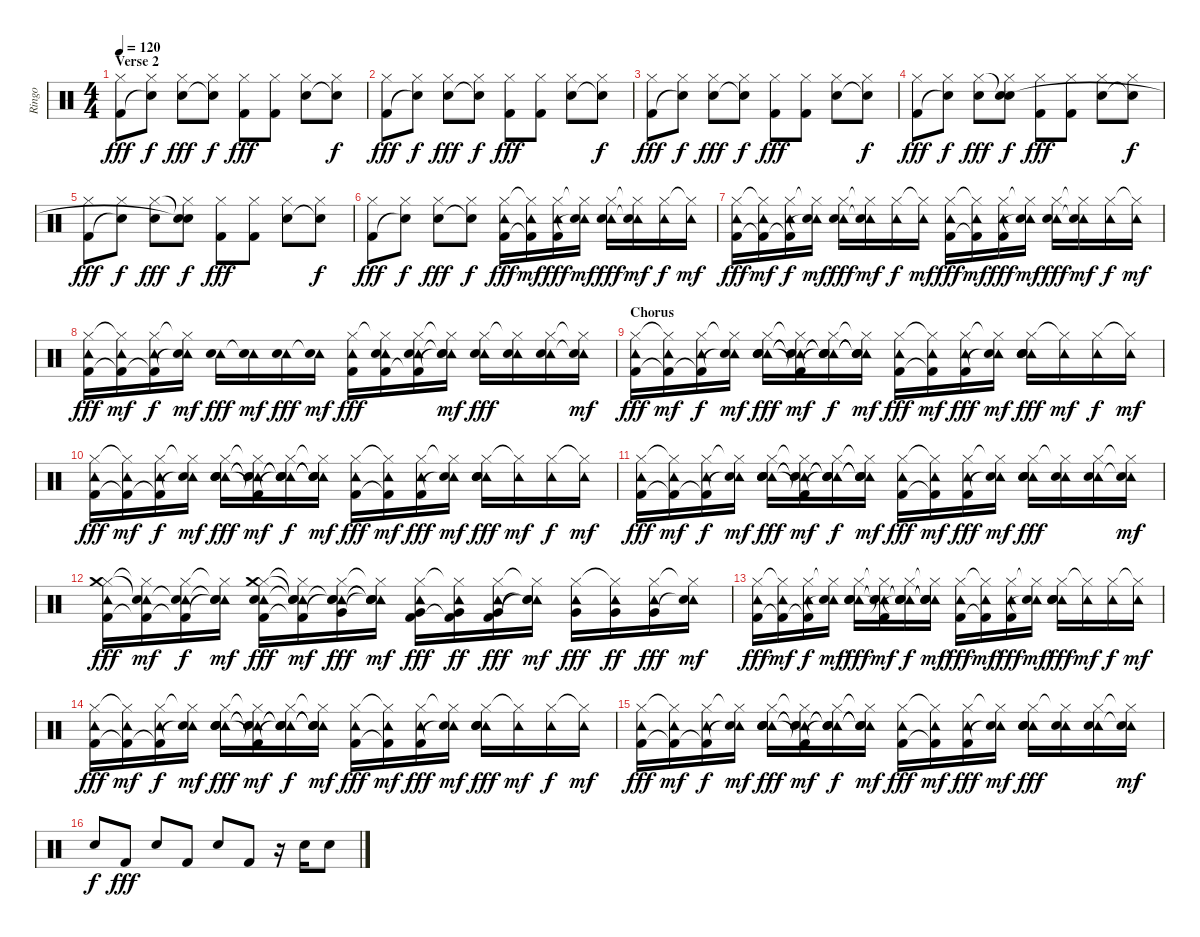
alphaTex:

\track ("Ringo" "Ringo") {instrument percussion}
\staff {score}
\articulation defaults
\ts (4 4)
\section ("" "Verse 2")
\tempo 120
\clef neutral
\ks c
("Hi-Hat (closed)" "Kick (hit) 2").8{dy fff} ("Hi-Hat (closed)" "Snare (hit)"{t}).8{dy f} ("Hi-Hat (closed)" "Electric Snare (hit)").8{dy fff} ("Hi-Hat (closed)" "Snare (hit)"{t}).8{dy f} ("Hi-Hat (closed)" "Kick (hit) 2").8{dy fff} ("Hi-Hat (closed)" "Kick (hit) 2").8 ("Hi-Hat (closed)" "Electric Snare (hit)").8 ("Hi-Hat (closed)" "Snare (hit)"{t}).8{dy f} |
("Hi-Hat (closed)" "Kick (hit) 2").8{dy fff} ("Hi-Hat (closed)" "Snare (hit)"{t}).8{dy f} ("Hi-Hat (closed)" "Electric Snare (hit)").8{dy fff} ("Hi-Hat (closed)" "Snare (hit)"{t}).8{dy f} ("Hi-Hat (closed)" "Kick (hit) 2").8{dy fff} ("Hi-Hat (closed)" "Kick (hit) 2").8 ("Hi-Hat (closed)" "Electric Snare (hit)").8 ("Hi-Hat (closed)" "Snare (hit)"{t}).8{dy f} |
("Hi-Hat (closed)" "Kick (hit) 2").8{dy fff} ("Hi-Hat (closed)" "Snare (hit)"{t}).8{dy f} ("Hi-Hat (closed)" "Electric Snare (hit)").8{dy fff} ("Hi-Hat (closed)" "Snare (hit)"{t}).8{dy f} ("Hi-Hat (closed)" "Kick (hit) 2").8{dy fff} ("Hi-Hat (closed)" "Kick (hit) 2").8 ("Hi-Hat (closed)" "Electric Snare (hit)").8 ("Hi-Hat (closed)" "Snare (hit)"{t}).8{dy f} |
("Hi-Hat (closed)" "Kick (hit) 2").8{dy fff} ("Hi-Hat (closed)" "Snare (hit)"{t}).8{dy f} ("Hi-Hat (closed)" "Electric Snare (hit)").8{dy fff} ("Snare (hit)"{t} "Hi-Hat (closed)" "Snare (hit)").8{dy f} ("Hi-Hat (closed)" "Kick (hit) 2").8{dy fff} ("Hi-Hat (closed)" "Kick (hit) 2").8 ("Hi-Hat (closed)" "Electric Snare (hit)").8 ("Hi-Hat (closed)" "Snare (hit)"{t}).8{dy f} |
("Hi-Hat (closed)" "Kick (hit) 2").8{dy fff} ("Hi-Hat (closed)" "Snare (hit)"{t}).8{dy f} ("Hi-Hat (closed)" "Electric Snare (hit)").8{dy fff} ("Snare (hit)"{t} "Hi-Hat (closed)" "Snare (hit)"{t}).8{dy f} ("Hi-Hat (closed)" "Kick (hit) 2").8{dy fff} ("Hi-Hat (closed)" "Kick (hit) 2").8 ("Hi-Hat (closed)" "Electric Snare (hit)").8 ("Hi-Hat (closed)" "Snare (hit)"{t}).8{dy f} |
("Hi-Hat (closed)" "Kick (hit) 2").8{dy fff} ("Hi-Hat (closed)" "Snare (hit)"{t}).8{dy f} ("Hi-Hat (closed)" "Electric Snare (hit)").8{dy fff} ("Hi-Hat (closed)" "Snare (hit)"{t}).8{dy f} ("Tambourine (hit)" "Hi-Hat (closed)" "Kick (hit) 2").16{dy fff} ("Tambourine (hit)" "Hi-Hat (closed)"{t} "Kick (hit) 2"{t}).16{dy mf} ("Tambourine (hit)" "Hi-Hat (closed)" "Kick (hit) 2").16{dy fff} ("Tambourine (hit)" "Hi-Hat (closed)"{t} "Snare (hit)"{t}).16{dy mf} ("Tambourine (hit)" "Hi-Hat (closed)" "Electric Snare (hit)").16{dy fff} ("Tambourine (hit)" "Hi-Hat (closed)"{t} "Snare (hit)"{t}).16{dy mf} ("Tambourine (hit)" "Hi-Hat (closed)").16{dy f} ("Tambourine (hit)" "Hi-Hat (closed)"{t}).16{dy mf} |
("Tambourine (hit)" "Hi-Hat (closed)" "Kick (hit) 2").16{dy fff} ("Tambourine (hit)" "Hi-Hat (closed)"{t} "Kick (hit) 2"{t}).16{dy mf} ("Tambourine (hit)" "Hi-Hat (closed)" "Kick (hit) 2"{t}).16{dy f} ("Tambourine (hit)" "Hi-Hat (closed)"{t} "Snare (hit)"{t}).16{dy mf} ("Tambourine (hit)" "Hi-Hat (closed)" "Electric Snare (hit)").16{dy fff} ("Tambourine (hit)" "Hi-Hat (closed)"{t} "Snare (hit)"{t}).16{dy mf} ("Tambourine (hit)" "Hi-Hat (closed)").16{dy f} ("Tambourine (hit)" "Hi-Hat (closed)"{t}).16{dy mf} ("Tambourine (hit)" "Hi-Hat (closed)" "Kick (hit) 2").16{dy fff} ("Tambourine (hit)" "Hi-Hat (closed)"{t} "Kick (hit) 2"{t}).16{dy mf} ("Tambourine (hit)" "Hi-Hat (closed)" "Kick (hit) 2").16{dy fff} ("Tambourine (hit)" "Hi-Hat (closed)"{t} "Snare (hit)"{t}).16{dy mf} ("Tambourine (hit)" "Hi-Hat (closed)" "Electric Snare (hit)").16{dy fff} ("Tambourine (hit)" "Hi-Hat (closed)"{t} "Snare (hit)"{t}).16{dy mf} ("Tambourine (hit)" "Hi-Hat (closed)").16{dy f} ("Tambourine (hit)" "Hi-Hat (closed)"{t}).16{dy mf} |
("Tambourine (hit)" "Hi-Hat (closed)" "Kick (hit) 2").16{dy fff} ("Tambourine (hit)" "Hi-Hat (closed)"{t} "Kick (hit) 2"{t}).16{dy mf} ("Tambourine (hit)" "Hi-Hat (closed)" "Kick (hit) 2"{t}).16{dy f} ("Tambourine (hit)" "Hi-Hat (closed)"{t} "Snare (hit)"{t}).16{dy mf} ("Tambourine (hit)" "Electric Snare (hit)").16{dy fff} ("Tambourine (hit)" "Snare (hit)"{t}).16{dy mf} ("Tambourine (hit)" "Electric Snare (hit)").16{dy fff} ("Tambourine (hit)" "Snare (hit)"{t}).16{dy mf} ("Tambourine (hit)" "Hi-Hat (closed)" "Kick (hit) 2").16{dy fff} ("Tambourine (hit)" "Hi-Hat (closed)"{t} "Electric Snare (hit)" "Kick (hit) 2").16 ("Tambourine (hit)" "Hi-Hat (closed)" "Electric Snare (hit)" "Kick (hit) 2"{t}).16 ("Tambourine (hit)" "Hi-Hat (closed)"{t} "Snare (hit)"{t} "Snare (hit)"{t}).16{dy mf} ("Tambourine (hit)" "Hi-Hat (closed)" "Electric Snare (hit)").16{dy fff} ("Tambourine (hit)" "Hi-Hat (closed)"{t} "Electric Snare (hit)").16 ("Tambourine (hit)" "Hi-Hat (closed)" "Electric Snare (hit)").16 ("Tambourine (hit)" "Hi-Hat (closed)"{t} "Snare (hit)"{t}).16{dy mf} |
\section ("" "Chorus")
("Tambourine (hit)" "Hi-Hat (closed)" "Kick (hit) 2").16{dy fff} ("Tambourine (hit)" "Hi-Hat (closed)"{t} "Kick (hit) 2"{t}).16{dy mf} ("Tambourine (hit)" "Hi-Hat (closed)" "Kick (hit) 2"{t}).16{dy f} ("Tambourine (hit)" "Hi-Hat (closed)"{t} "Snare (hit)"{t}).16{dy mf} ("Tambourine (hit)" "Hi-Hat (closed)" "Electric Snare (hit)" "Hand Clap (hit)" "Hand Clap (hit)").16{dy fff} ("Tambourine (hit)" "Hi-Hat (closed)"{t} "Snare (hit)"{t} "Kick (hit) 2"{t} "Snare (hit)"{t}).16{dy mf} ("Tambourine (hit)" "Hi-Hat (closed)" "Electric Snare (hit)"{t} "Snare (hit)"{t} "Hand Clap (hit)"{t}).16{dy f} ("Tambourine (hit)" "Hi-Hat (closed)"{t} "Snare (hit)"{t} "Snare (hit)"{t} "Snare (hit)"{t}).16{dy mf} ("Tambourine (hit)" "Hi-Hat (closed)" "Kick (hit) 2").16{dy fff} ("Tambourine (hit)" "Hi-Hat (closed)"{t} "Kick (hit) 2"{t}).16{dy mf} ("Tambourine (hit)" "Hi-Hat (closed)" "Kick (hit) 2").16{dy fff} ("Tambourine (hit)" "Hi-Hat (closed)"{t} "Snare (hit)"{t}).16{dy mf} ("Tambourine (hit)" "Hi-Hat (closed)" "Electric Snare (hit)" "Hand Clap (hit)" "Hand Clap (hit)").16{dy fff} ("Tambourine (hit)" "Hi-Hat (closed)"{t}).16{dy mf} ("Tambourine (hit)" "Hi-Hat (closed)").16{dy f} ("Tambourine (hit)" "Hi-Hat (closed)"{t}).16{dy mf} |
("Tambourine (hit)" "Hi-Hat (closed)" "Kick (hit) 2").16{dy fff} ("Tambourine (hit)" "Hi-Hat (closed)"{t} "Kick (hit) 2"{t}).16{dy mf} ("Tambourine (hit)" "Hi-Hat (closed)" "Kick (hit) 2"{t}).16{dy f} ("Tambourine (hit)" "Hi-Hat (closed)"{t} "Snare (hit)"{t}).16{dy mf} ("Tambourine (hit)" "Hi-Hat (closed)" "Electric Snare (hit)" "Hand Clap (hit)" "Hand Clap (hit)").16{dy fff} ("Tambourine (hit)" "Hi-Hat (closed)"{t} "Snare (hit)"{t} "Kick (hit) 2"{t} "Snare (hit)"{t}).16{dy mf} ("Tambourine (hit)" "Hi-Hat (closed)" "Electric Snare (hit)"{t} "Snare (hit)"{t} "Hand Clap (hit)"{t}).16{dy f} ("Tambourine (hit)" "Hi-Hat (closed)"{t} "Snare (hit)"{t} "Snare (hit)"{t} "Snare (hit)"{t}).16{dy mf} ("Tambourine (hit)" "Hi-Hat (closed)" "Kick (hit) 2").16{dy fff} ("Tambourine (hit)" "Hi-Hat (closed)"{t} "Kick (hit) 2"{t}).16{dy mf} ("Tambourine (hit)" "Hi-Hat (closed)" "Kick (hit) 2").16{dy fff} ("Tambourine (hit)" "Hi-Hat (closed)"{t} "Snare (hit)"{t}).16{dy mf} ("Tambourine (hit)" "Hi-Hat (closed)" "Electric Snare (hit)" "Hand Clap (hit)" "Hand Clap (hit)").16{dy fff} ("Tambourine (hit)" "Hi-Hat (closed)"{t}).16{dy mf} ("Tambourine (hit)" "Hi-Hat (closed)").16{dy f} ("Tambourine (hit)" "Hi-Hat (closed)"{t}).16{dy mf} |
("Tambourine (hit)" "Hi-Hat (closed)" "Kick (hit) 2").16{dy fff} ("Tambourine (hit)" "Hi-Hat (closed)"{t} "Kick (hit) 2"{t}).16{dy mf} ("Tambourine (hit)" "Hi-Hat (closed)" "Kick (hit) 2"{t}).16{dy f} ("Tambourine (hit)" "Hi-Hat (closed)"{t} "Snare (hit)"{t}).16{dy mf} ("Tambourine (hit)" "Hi-Hat (closed)" "Electric Snare (hit)" "Hand Clap (hit)" "Hand Clap (hit)").16{dy fff} ("Tambourine (hit)" "Hi-Hat (closed)"{t} "Snare (hit)"{t} "Kick (hit) 2"{t} "Snare (hit)"{t}).16{dy mf} ("Tambourine (hit)" "Hi-Hat (closed)" "Electric Snare (hit)"{t} "Snare (hit)"{t} "Hand Clap (hit)"{t}).16{dy f} ("Tambourine (hit)" "Hi-Hat (closed)"{t} "Snare (hit)"{t} "Snare (hit)"{t} "Snare (hit)"{t}).16{dy mf} ("Tambourine (hit)" "Hi-Hat (closed)" "Kick (hit) 2").16{dy fff} ("Tambourine (hit)" "Hi-Hat (closed)"{t} "Kick (hit) 2"{t}).16{dy mf} ("Tambourine (hit)" "Hi-Hat (closed)" "Kick (hit) 2").16{dy fff} ("Tambourine (hit)" "Hi-Hat (closed)"{t} "Snare (hit)"{t}).16{dy mf} ("Tambourine (hit)" "Hi-Hat (closed)" "Electric Snare (hit)" "Hand Clap (hit)" "Hand Clap (hit)").16{dy fff} ("Tambourine (hit)" "Hi-Hat (closed)"{t} "Electric Snare (hit)").16 ("Tambourine (hit)" "Hi-Hat (closed)" "Electric Snare (hit)").16 ("Tambourine (hit)" "Hi-Hat (closed)"{t} "Snare (hit)"{t}).16{dy mf} |
("Tambourine (hit)" "Hi-Hat (closed)" "Kick (hit) 2" "Crash medium (hit)").16{dy fff} ("Tambourine (hit)" "Hi-Hat (closed)"{t} "Kick (hit) 2"{t} "Snare (hit)"{t}).16{dy mf} ("Tambourine (hit)" "Hi-Hat (closed)" "Kick (hit) 2"{t} "Snare (hit)"{t}).16{dy f} ("Tambourine (hit)" "Hi-Hat (closed)"{t} "Snare (hit)"{t} "Snare (hit)"{t}).16{dy mf} ("Tambourine (hit)" "Hi-Hat (closed)" "Electric Snare (hit)" "Kick (hit) 2" "Crash medium (hit)").16{dy fff} ("Tambourine (hit)" "Hi-Hat (closed)"{t} "Snare (hit)"{t} "Kick (hit) 2"{t} "Snare (hit)"{t}).16{dy mf} ("Tambourine (hit)" "Hi-Hat (closed)" "Very Low Tom (hit)" "Snare (hit)"{t} "Snare (hit)"{t}).16{dy fff} ("Tambourine (hit)" "Hi-Hat (closed)"{t} "Snare (hit)"{t} "Snare (hit)"{t} "Snare (hit)"{t}).16{dy mf} ("Tambourine (hit)" "Hi-Hat (closed)" "Very Low Tom (hit)" "Kick (hit) 2").16{dy fff} ("Tambourine (hit)" "Hi-Hat (closed)"{t} "Very Low Tom (hit)" "Kick (hit) 2"{t}).16{dy ff} ("Tambourine (hit)" "Hi-Hat (closed)" "Very Low Tom (hit)" "Kick (hit) 2").16{dy fff} ("Tambourine (hit)" "Hi-Hat (closed)"{t} "Snare (hit)"{t} "Snare (hit)"{t}).16{dy mf} ("Tambourine (hit)" "Hi-Hat (closed)" "Very Low Tom (hit)").16{dy fff} ("Tambourine (hit)" "Hi-Hat (closed)"{t} "Very Low Tom (hit)").16{dy ff} ("Tambourine (hit)" "Hi-Hat (closed)" "Very Low Tom (hit)").16{dy fff} ("Tambourine (hit)" "Hi-Hat (closed)"{t} "Snare (hit)"{t}).16{dy mf} |
("Tambourine (hit)" "Hi-Hat (closed)" "Kick (hit) 2").16{dy fff} ("Tambourine (hit)" "Hi-Hat (closed)"{t} "Kick (hit) 2"{t}).16{dy mf} ("Tambourine (hit)" "Hi-Hat (closed)" "Kick (hit) 2"{t}).16{dy f} ("Tambourine (hit)" "Hi-Hat (closed)"{t} "Snare (hit)"{t}).16{dy mf} ("Tambourine (hit)" "Hi-Hat (closed)" "Electric Snare (hit)" "Hand Clap (hit)" "Hand Clap (hit)").16{dy fff} ("Tambourine (hit)" "Hi-Hat (closed)"{t} "Snare (hit)"{t} "Kick (hit) 2"{t} "Snare (hit)"{t}).16{dy mf} ("Tambourine (hit)" "Hi-Hat (closed)" "Electric Snare (hit)"{t} "Snare (hit)"{t} "Hand Clap (hit)"{t}).16{dy f} ("Tambourine (hit)" "Hi-Hat (closed)"{t} "Snare (hit)"{t} "Snare (hit)"{t} "Snare (hit)"{t}).16{dy mf} ("Tambourine (hit)" "Hi-Hat (closed)" "Kick (hit) 2").16{dy fff} ("Tambourine (hit)" "Hi-Hat (closed)"{t} "Kick (hit) 2"{t}).16{dy mf} ("Tambourine (hit)" "Hi-Hat (closed)" "Kick (hit) 2").16{dy fff} ("Tambourine (hit)" "Hi-Hat (closed)"{t} "Snare (hit)"{t}).16{dy mf} ("Tambourine (hit)" "Hi-Hat (closed)" "Electric Snare (hit)" "Hand Clap (hit)" "Hand Clap (hit)").16{dy fff} ("Tambourine (hit)" "Hi-Hat (closed)"{t}).16{dy mf} ("Tambourine (hit)" "Hi-Hat (closed)").16{dy f} ("Tambourine (hit)" "Hi-Hat (closed)"{t}).16{dy mf} |
("Tambourine (hit)" "Hi-Hat (closed)" "Kick (hit) 2").16{dy fff} ("Tambourine (hit)" "Hi-Hat (closed)"{t} "Kick (hit) 2"{t}).16{dy mf} ("Tambourine (hit)" "Hi-Hat (closed)" "Kick (hit) 2"{t}).16{dy f} ("Tambourine (hit)" "Hi-Hat (closed)"{t} "Snare (hit)"{t}).16{dy mf} ("Tambourine (hit)" "Hi-Hat (closed)" "Electric Snare (hit)" "Hand Clap (hit)" "Hand Clap (hit)").16{dy fff} ("Tambourine (hit)" "Hi-Hat (closed)"{t} "Snare (hit)"{t} "Kick (hit) 2"{t} "Snare (hit)"{t}).16{dy mf} ("Tambourine (hit)" "Hi-Hat (closed)" "Electric Snare (hit)"{t} "Snare (hit)"{t} "Hand Clap (hit)"{t}).16{dy f} ("Tambourine (hit)" "Hi-Hat (closed)"{t} "Snare (hit)"{t} "Snare (hit)"{t} "Snare (hit)"{t}).16{dy mf} ("Tambourine (hit)" "Hi-Hat (closed)" "Kick (hit) 2").16{dy fff} ("Tambourine (hit)" "Hi-Hat (closed)"{t} "Kick (hit) 2"{t}).16{dy mf} ("Tambourine (hit)" "Hi-Hat (closed)" "Kick (hit) 2").16{dy fff} ("Tambourine (hit)" "Hi-Hat (closed)"{t} "Snare (hit)"{t}).16{dy mf} ("Tambourine (hit)" "Hi-Hat (closed)" "Electric Snare (hit)" "Hand Clap (hit)" "Hand Clap (hit)").16{dy fff} ("Tambourine (hit)" "Hi-Hat (closed)"{t}).16{dy mf} ("Tambourine (hit)" "Hi-Hat (closed)").16{dy f} ("Tambourine (hit)" "Hi-Hat (closed)"{t}).16{dy mf} |
("Tambourine (hit)" "Hi-Hat (closed)" "Kick (hit) 2").16{dy fff} ("Tambourine (hit)" "Hi-Hat (closed)"{t} "Kick (hit) 2"{t}).16{dy mf} ("Tambourine (hit)" "Hi-Hat (closed)" "Kick (hit) 2"{t}).16{dy f} ("Tambourine (hit)" "Hi-Hat (closed)"{t} "Snare (hit)"{t}).16{dy mf} ("Tambourine (hit)" "Hi-Hat (closed)" "Electric Snare (hit)" "Hand Clap (hit)" "Hand Clap (hit)").16{dy fff} ("Tambourine (hit)" "Hi-Hat (closed)"{t} "Snare (hit)"{t} "Kick (hit) 2"{t} "Snare (hit)"{t}).16{dy mf} ("Tambourine (hit)" "Hi-Hat (closed)" "Electric Snare (hit)"{t} "Snare (hit)"{t} "Hand Clap (hit)"{t}).16{dy f} ("Tambourine (hit)" "Hi-Hat (closed)"{t} "Snare (hit)"{t} "Snare (hit)"{t} "Snare (hit)"{t}).16{dy mf} ("Tambourine (hit)" "Hi-Hat (closed)" "Kick (hit) 2").16{dy fff} ("Tambourine (hit)" "Hi-Hat (closed)"{t} "Kick (hit) 2"{t}).16{dy mf} ("Tambourine (hit)" "Hi-Hat (closed)" "Kick (hit) 2").16{dy fff} ("Tambourine (hit)" "Hi-Hat (closed)"{t} "Snare (hit)"{t}).16{dy mf} ("Tambourine (hit)" "Hi-Hat (closed)" "Electric Snare (hit)" "Hand Clap (hit)" "Hand Clap (hit)").16{dy fff} ("Tambourine (hit)" "Hi-Hat (closed)"{t} "Electric Snare (hit)").16 ("Tambourine (hit)" "Hi-Hat (closed)" "Electric Snare (hit)").16 ("Tambourine (hit)" "Hi-Hat (closed)"{t} "Snare (hit)"{t}).16{dy mf} |
"Electric Snare (hit)".8{dy f} "Kick (hit) 2".8{dy fff} "Electric Snare (hit)".8 "Kick (hit) 2".8 "Electric Snare (hit)".8 "Kick (hit) 2".8 r.16 "Electric Snare (hit)".16 "Electric Snare (hit)".8
